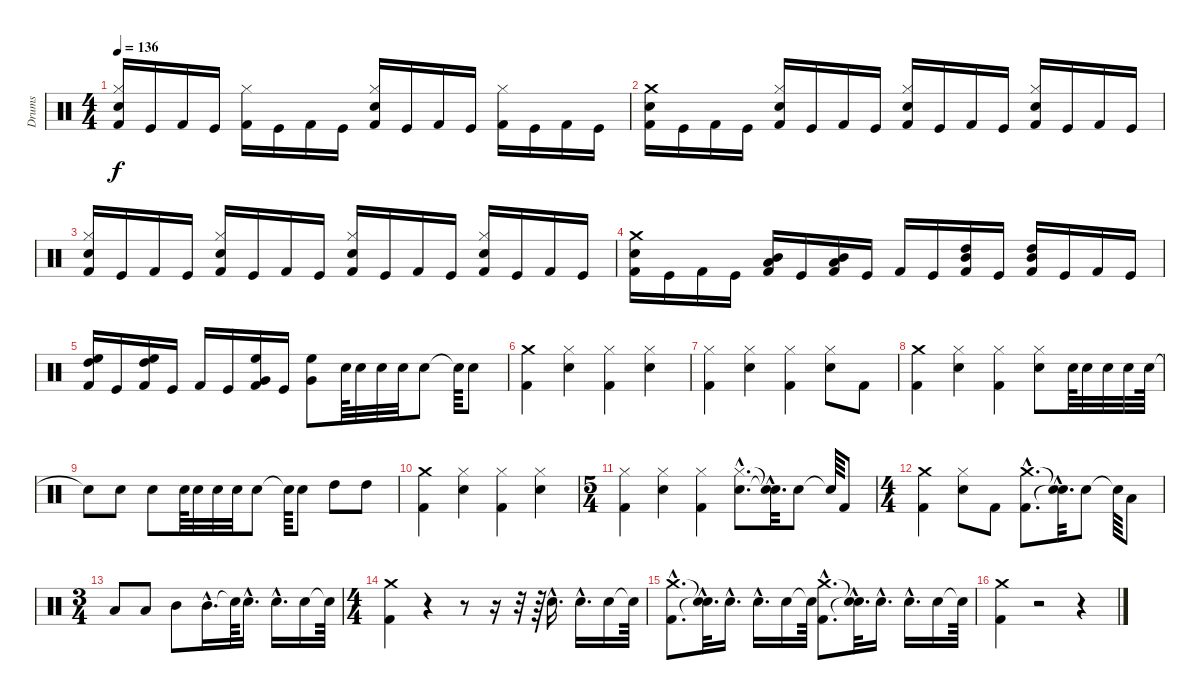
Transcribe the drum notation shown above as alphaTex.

\track ("Drums" "Drums") {instrument percussion}
\staff {score}
\articulation defaults
\ts (4 4)
\tempo 136
\clef neutral
\ks c
("Snare (hit) 2" "Hi-Hat (closed)" "Kick (hit) 2").16{dy f} "Kick (hit)".16 "Kick (hit) 2".16 "Kick (hit)".16 ("Hi-Hat (closed)" "Kick (hit) 2").16 "Kick (hit)".16 "Kick (hit) 2".16 "Kick (hit)".16 ("Snare (hit) 2" "Hi-Hat (closed)" "Kick (hit) 2").16 "Kick (hit)".16 "Kick (hit) 2".16 "Kick (hit)".16 ("Hi-Hat (closed)" "Kick (hit) 2").16 "Kick (hit)".16 "Kick (hit) 2".16 "Kick (hit)".16 |
("Snare (hit) 2" "Crash medium (hit)" "Kick (hit) 2").16 "Kick (hit)".16 "Kick (hit) 2".16 "Kick (hit)".16 ("Hi-Hat (closed)" "Snare (hit) 2" "Kick (hit) 2").16 "Kick (hit)".16 "Kick (hit) 2".16 "Kick (hit)".16 ("Snare (hit) 2" "Hi-Hat (closed)" "Kick (hit) 2").16 "Kick (hit)".16 "Kick (hit) 2".16 "Kick (hit)".16 ("Hi-Hat (closed)" "Snare (hit) 2" "Kick (hit) 2").16 "Kick (hit)".16 "Kick (hit) 2".16 "Kick (hit)".16 |
("Snare (hit) 2" "Hi-Hat (closed)" "Kick (hit) 2").16 "Kick (hit)".16 "Kick (hit) 2".16 "Kick (hit)".16 ("Hi-Hat (closed)" "Snare (hit) 2" "Kick (hit) 2").16 "Kick (hit)".16 "Kick (hit) 2".16 "Kick (hit)".16 ("Snare (hit) 2" "Hi-Hat (closed)" "Kick (hit) 2").16 "Kick (hit)".16 "Kick (hit) 2".16 "Kick (hit)".16 ("Hi-Hat (closed)" "Snare (hit) 2" "Kick (hit) 2").16 "Kick (hit)".16 "Kick (hit) 2".16 "Kick (hit)".16 |
("Snare (hit) 2" "Crash medium (hit)" "Kick (hit) 2").16 "Kick (hit)".16 "Kick (hit) 2".16 "Kick (hit)".16 ("Mid Tom (hit)" "Low Tom (hit)" "Kick (hit) 2").16 "Kick (hit)".16 ("Low Tom (hit)" "Mid Tom (hit)" "Kick (hit) 2").16 "Kick (hit)".16 "Kick (hit) 2".16 "Kick (hit)".16 ("High Tom (hit)" "Mid Tom (hit)" "Kick (hit) 2").16 "Kick (hit)".16 ("High Tom (hit)" "Mid Tom (hit)" "Kick (hit) 2").16 "Kick (hit)".16 "Kick (hit) 2".16 "Kick (hit)".16 |
("High Floor Tom (hit)" "High Tom (hit)" "Kick (hit) 2").16 "Kick (hit)".16 ("High Tom (hit)" "High Floor Tom (hit)" "Kick (hit) 2").16 "Kick (hit)".16 "Kick (hit) 2".16 "Kick (hit)".16 ("Very Low Tom (hit)" "High Floor Tom (hit)" "Kick (hit) 2").16 "Kick (hit)".16 ("Very Low Tom (hit)" "High Floor Tom (hit)").8 "Snare (hit) 2".64 "Snare (hit) 2".32 "Snare (hit) 2".32 "Snare (hit) 2".32 "Snare (hit) 2".8 "Snare (hit)"{t}.64 "Snare (hit) 2".8 |
("Kick (hit) 2" "Crash medium (hit)").4 ("Hi-Hat (closed)" "Snare (hit) 2").4 ("Kick (hit) 2" "Hi-Hat (closed)").4 ("Hi-Hat (closed)" "Snare (hit) 2").4 |
("Hi-Hat (closed)" "Kick (hit) 2").4 ("Snare (hit) 2" "Hi-Hat (closed)").4 ("Hi-Hat (closed)" "Kick (hit) 2").4 ("Snare (hit) 2" "Hi-Hat (closed)").8 "Kick (hit) 2".8 |
("Kick (hit) 2" "Crash medium (hit)").4 ("Hi-Hat (closed)" "Snare (hit) 2").4 ("Kick (hit) 2" "Hi-Hat (closed)").4 ("Hi-Hat (closed)" "Snare (hit) 2").8 "Snare (hit) 2".64 "Snare (hit) 2".32 "Snare (hit) 2".32 "Snare (hit) 2".32 "Snare (hit) 2".64 |
"Snare (hit)"{t}.8 "Snare (hit) 2".8 "Snare (hit) 2".8 "Snare (hit) 2".64 "Snare (hit) 2".32 "Snare (hit) 2".32 "Snare (hit) 2".32 "Snare (hit) 2".8 "Snare (hit)"{t}.64 "Snare (hit) 2".8 "High Tom (hit)".8 "High Tom (hit)".8 |
("Kick (hit) 2" "Crash medium (hit)").4 ("Hi-Hat (closed)" "Snare (hit) 2").4 ("Kick (hit) 2" "Hi-Hat (closed)").4 ("Hi-Hat (closed)" "Snare (hit) 2").4 |
\ts (5 4)
("Kick (hit) 2" "Hi-Hat (closed)").4 ("Snare (hit) 2" "Hi-Hat (closed)").4 ("Kick (hit) 2" "Hi-Hat (closed)").4 ("Snare (hit) 2"{hac} "Hi-Hat (closed)"{hac}).8{d} ("Snare (hit)"{hac t} "Snare (hit)"{hac t}).32{d} "Snare (hit) 2".8 "Snare (hit)"{t}.64 "Kick (hit) 2".8 |
\ts (4 4)
("Kick (hit) 2" "Crash medium (hit)").4 ("Hi-Hat (closed)" "Snare (hit) 2").8 "Kick (hit) 2".8 ("Crash medium (hit)"{hac} "Kick (hit) 2"{hac}).8{d} ("Snare (hit)"{hac t} "Snare (hit)"{hac t}).32{d} "Snare (hit) 2".8 "Snare (hit)"{t}.64 "Low Tom (hit)".8 |
\ts (3 4)
"Low Tom (hit)".8 "Low Tom (hit)".8 "Mid Tom (hit)".8 "Mid Tom (hit)"{hac}.16{d} "Snare (hit)"{t}.64 "Snare (hit) 2"{hac}.16{d} "Snare (hit) 2"{hac}.16{d} "Snare (hit) 2".16 "Snare (hit)"{t}.64 |
\ts (4 4)
("Kick (hit) 2" "Crash medium (hit)").4 r.4 r.8 r.16 r.32 r.64 "Snare (hit) 2"{hac}.16{d} "Snare (hit) 2"{hac}.16{d} "Snare (hit) 2".16 "Snare (hit)"{t}.64 |
("Crash medium (hit)"{hac} "Kick (hit) 2"{hac}).8{d} ("Snare (hit)"{hac t} "Snare (hit)"{hac t}).32{d} "Snare (hit) 2"{hac}.16{d} "Snare (hit) 2"{hac}.16{d} "Snare (hit) 2".16 "Snare (hit)"{t}.64 ("Crash medium (hit)"{hac} "Kick (hit) 2"{hac}).8{d} ("Snare (hit)"{hac t} "Snare (hit)"{hac t}).32{d} "Snare (hit) 2"{hac}.16{d} "Snare (hit) 2"{hac}.16{d} "Snare (hit) 2".16 "Snare (hit)"{t}.64 |
("Kick (hit) 2" "Crash medium (hit)").4 r.2 r.4
